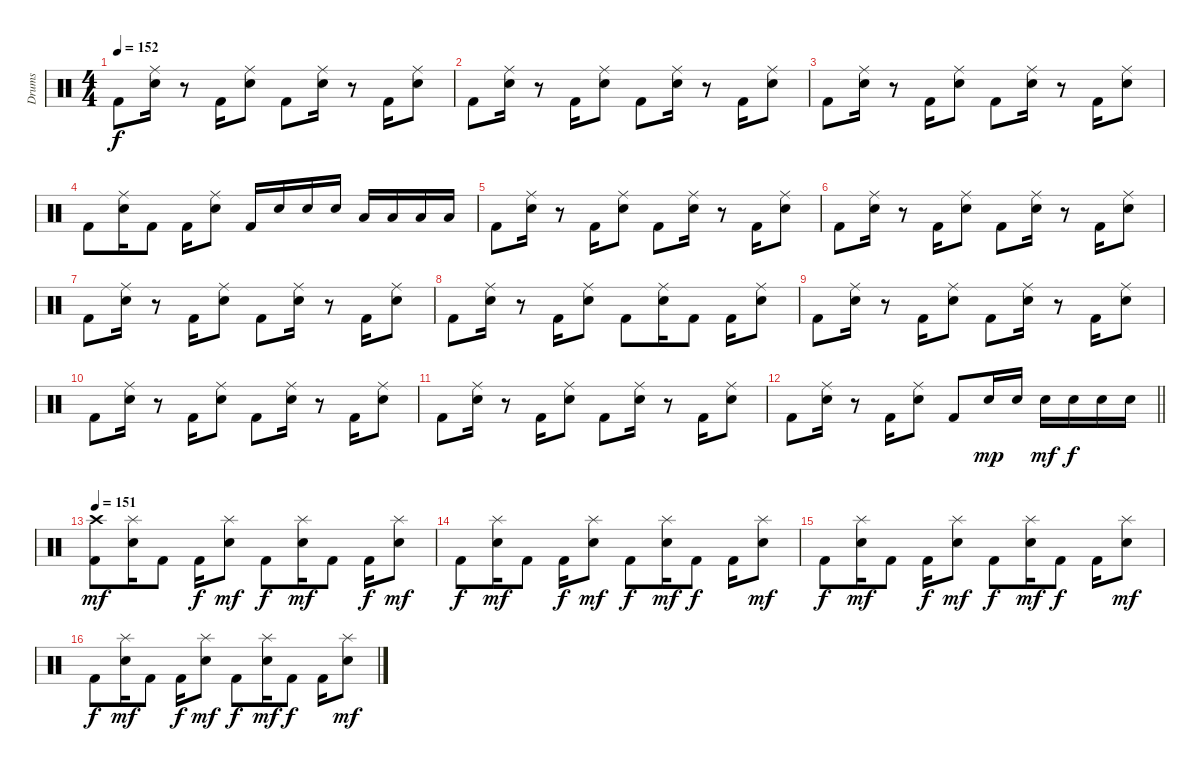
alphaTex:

\track ("Drums" "Drums") {instrument percussion}
\staff {score}
\articulation defaults
\ts (4 4)
\tempo 152
\clef neutral
\ks c "Kick (hit) 2".8{dy f}
("Ride (middle)" "Snare (hit) 2").16 r.8 "Kick (hit) 2".16 ("Ride (middle)" "Snare (hit) 2").8 "Kick (hit) 2".8 ("Ride (middle)" "Snare (hit) 2").16 r.8 "Kick (hit) 2".16 ("Ride (middle)" "Snare (hit) 2").8 |
"Kick (hit) 2".8 ("Ride (middle)" "Snare (hit) 2").16 r.8 "Kick (hit) 2".16 ("Ride (middle)" "Snare (hit) 2").8 "Kick (hit) 2".8 ("Ride (middle)" "Snare (hit) 2").16 r.8 "Kick (hit) 2".16 ("Ride (middle)" "Snare (hit) 2").8 |
"Kick (hit) 2".8 ("Ride (middle)" "Snare (hit) 2").16 r.8 "Kick (hit) 2".16 ("Ride (middle)" "Snare (hit) 2").8 "Kick (hit) 2".8 ("Ride (middle)" "Snare (hit) 2").16 r.8 "Kick (hit) 2".16 ("Ride (middle)" "Snare (hit) 2").8 |
"Kick (hit) 2".8 ("Ride (middle)" "Snare (hit) 2").16 "Kick (hit) 2".8 "Kick (hit) 2".16 ("Ride (middle)" "Snare (hit) 2").8 "Kick (hit) 2".16 "Snare (hit) 2".16 "Snare (hit) 2".16 "Snare (hit) 2".16 "Low Tom (hit)".16 "Low Tom (hit)".16 "Low Tom (hit)".16 "Low Tom (hit)".16 |
"Kick (hit) 2".8 ("Ride (middle)" "Snare (hit) 2").16 r.8 "Kick (hit) 2".16 ("Ride (middle)" "Snare (hit) 2").8 "Kick (hit) 2".8 ("Ride (middle)" "Snare (hit) 2").16 r.8 "Kick (hit) 2".16 ("Ride (middle)" "Snare (hit) 2").8 |
"Kick (hit) 2".8 ("Ride (middle)" "Snare (hit) 2").16 r.8 "Kick (hit) 2".16 ("Ride (middle)" "Snare (hit) 2").8 "Kick (hit) 2".8 ("Ride (middle)" "Snare (hit) 2").16 r.8 "Kick (hit) 2".16 ("Ride (middle)" "Snare (hit) 2").8 |
"Kick (hit) 2".8 ("Ride (middle)" "Snare (hit) 2").16 r.8 "Kick (hit) 2".16 ("Ride (middle)" "Snare (hit) 2").8 "Kick (hit) 2".8 ("Ride (middle)" "Snare (hit) 2").16 r.8 "Kick (hit) 2".16 ("Ride (middle)" "Snare (hit) 2").8 |
"Kick (hit) 2".8 ("Ride (middle)" "Snare (hit) 2").16 r.8 "Kick (hit) 2".16 ("Ride (middle)" "Snare (hit) 2").8 "Kick (hit) 2".8 ("Ride (middle)" "Snare (hit) 2").16 "Kick (hit) 2".8 "Kick (hit) 2".16 ("Ride (middle)" "Snare (hit) 2").8 |
"Kick (hit) 2".8 ("Ride (middle)" "Snare (hit) 2").16 r.8 "Kick (hit) 2".16 ("Ride (middle)" "Snare (hit) 2").8 "Kick (hit) 2".8 ("Ride (middle)" "Snare (hit) 2").16 r.8 "Kick (hit) 2".16 ("Ride (middle)" "Snare (hit) 2").8 |
"Kick (hit) 2".8 ("Ride (middle)" "Snare (hit) 2").16 r.8 "Kick (hit) 2".16 ("Ride (middle)" "Snare (hit) 2").8 "Kick (hit) 2".8 ("Ride (middle)" "Snare (hit) 2").16 r.8 "Kick (hit) 2".16 ("Ride (middle)" "Snare (hit) 2").8 |
"Kick (hit) 2".8 ("Ride (middle)" "Snare (hit) 2").16 r.8 "Kick (hit) 2".16 ("Ride (middle)" "Snare (hit) 2").8 "Kick (hit) 2".8 ("Ride (middle)" "Snare (hit) 2").16 r.8 "Kick (hit) 2".16 ("Ride (middle)" "Snare (hit) 2").8 |
\barLineRight lightlight "Kick (hit) 2".8
("Ride (middle)" "Snare (hit) 2").16 r.8 "Kick (hit) 2".16 ("Ride (middle)" "Snare (hit) 2").8 "Kick (hit) 2".8 "Snare (hit) 2".16{dy mp} "Snare (hit) 2".16 "Snare (hit) 2".16{dy mf} "Snare (hit) 2".16{dy f} "Snare (hit) 2".16 "Snare (hit) 2".16 |
\section ("" "")
\tempo 151
("Crash high (hit)" "Kick (hit) 2").8{dy mf} ("Splash (hit)" "Snare (hit) 2").16 "Kick (hit) 2".8 "Kick (hit) 2".16{dy f} ("Splash (hit)" "Snare (hit) 2").8{dy mf} "Kick (hit) 2".8{dy f} ("Splash (hit)" "Snare (hit) 2").16{dy mf} "Kick (hit) 2".8 "Kick (hit) 2".16{dy f} ("Splash (hit)" "Snare (hit) 2").8{dy mf} |
"Kick (hit) 2".8{dy f} ("Splash (hit)" "Snare (hit) 2").16{dy mf} "Kick (hit) 2".8 "Kick (hit) 2".16{dy f} ("Splash (hit)" "Snare (hit) 2").8{dy mf} "Kick (hit) 2".8{dy f} ("Splash (hit)" "Snare (hit) 2").16{dy mf} "Kick (hit) 2".8{dy f} "Kick (hit) 2".16 ("Splash (hit)" "Snare (hit) 2").8{dy mf} |
"Kick (hit) 2".8{dy f} ("Splash (hit)" "Snare (hit) 2").16{dy mf} "Kick (hit) 2".8 "Kick (hit) 2".16{dy f} ("Splash (hit)" "Snare (hit) 2").8{dy mf} "Kick (hit) 2".8{dy f} ("Splash (hit)" "Snare (hit) 2").16{dy mf} "Kick (hit) 2".8{dy f} "Kick (hit) 2".16 ("Splash (hit)" "Snare (hit) 2").8{dy mf} |
"Kick (hit) 2".8{dy f} ("Splash (hit)" "Snare (hit) 2").16{dy mf} "Kick (hit) 2".8 "Kick (hit) 2".16{dy f} ("Splash (hit)" "Snare (hit) 2").8{dy mf} "Kick (hit) 2".8{dy f} ("Splash (hit)" "Snare (hit) 2").16{dy mf} "Kick (hit) 2".8{dy f} "Kick (hit) 2".16 ("Splash (hit)" "Snare (hit) 2").8{dy mf}
